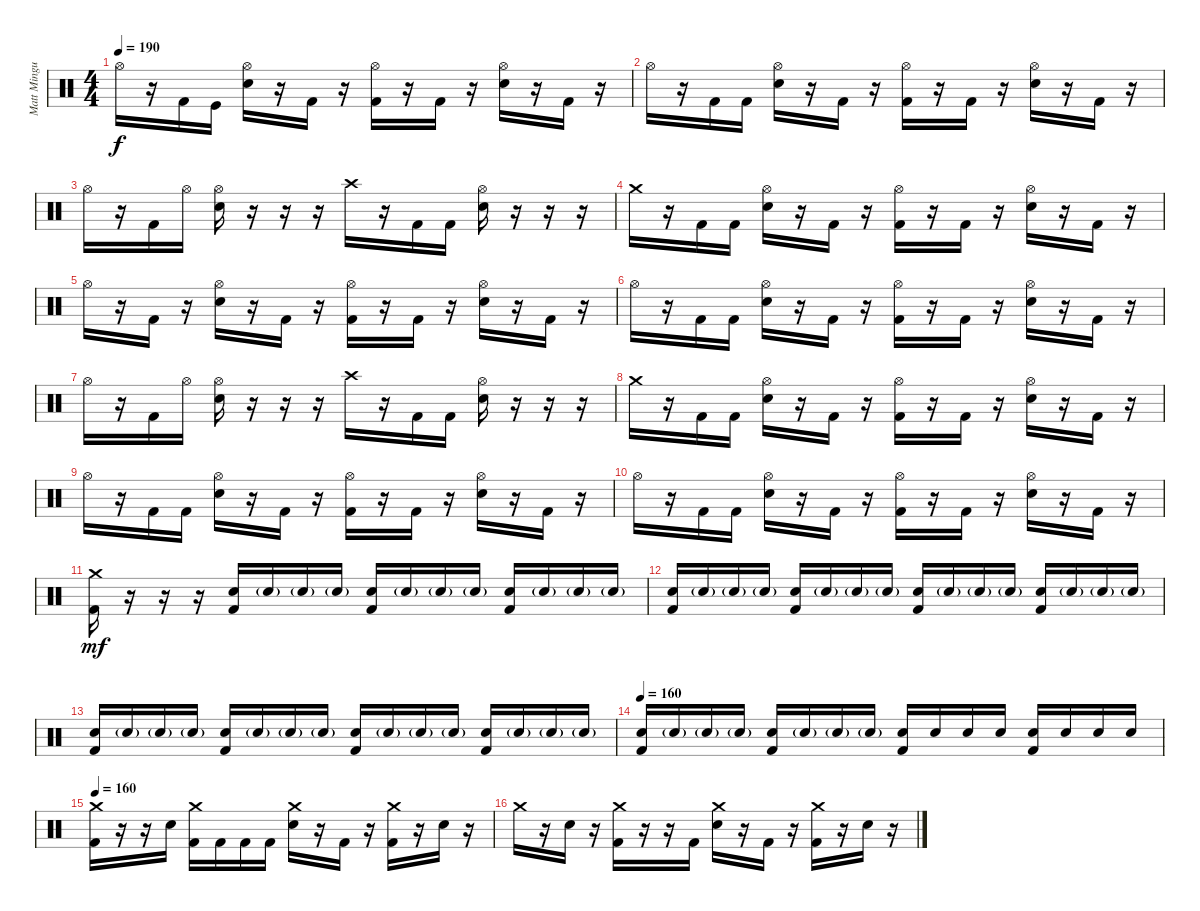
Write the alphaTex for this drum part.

\track ("Matt Mingus" "Matt Mingu") {instrument percussion}
\staff {score}
\articulation defaults
\ts (4 4)
\tempo 190
\clef neutral
\ks c "Hi-Hat (open)".16{dy f}
r.16 "Kick (hit) 2".16 "Kick (hit)".16 ("Hi-Hat (open)" "Electric Snare (hit)").16 r.16 "Kick (hit) 2".16 r.16 ("Hi-Hat (open)" "Kick (hit) 2").16 r.16 "Kick (hit) 2".16 r.16 ("Hi-Hat (open)" "Electric Snare (hit)").16 r.16 "Kick (hit) 2".16 r.16 |
"Hi-Hat (open)".16 r.16 "Kick (hit) 2".16 "Kick (hit) 2".16 ("Hi-Hat (open)" "Electric Snare (hit)").16 r.16 "Kick (hit) 2".16 r.16 ("Hi-Hat (open)" "Kick (hit) 2").16 r.16 "Kick (hit) 2".16 r.16 ("Hi-Hat (open)" "Electric Snare (hit)").16 r.16 "Kick (hit) 2".16 r.16 |
"Hi-Hat (open)".16 r.16 "Kick (hit) 2".16 "Hi-Hat (open)".16 ("Hi-Hat (open)" "Electric Snare (hit)").16 r.16 r.16 r.16 "Crash high (hit)".16 r.16 "Kick (hit) 2".16 "Kick (hit) 2".16 ("Hi-Hat (open)" "Electric Snare (hit)").16 r.16 r.16 r.16 |
"Crash medium (hit)".16 r.16 "Kick (hit) 2".16 "Kick (hit) 2".16 ("Hi-Hat (open)" "Electric Snare (hit)").16 r.16 "Kick (hit) 2".16 r.16 ("Hi-Hat (open)" "Kick (hit) 2").16 r.16 "Kick (hit) 2".16 r.16 ("Hi-Hat (open)" "Electric Snare (hit)").16 r.16 "Kick (hit) 2".16 r.16 |
"Hi-Hat (open)".16 r.16 "Kick (hit) 2".16 r.16 ("Hi-Hat (open)" "Electric Snare (hit)").16 r.16 "Kick (hit) 2".16 r.16 ("Hi-Hat (open)" "Kick (hit) 2").16 r.16 "Kick (hit) 2".16 r.16 ("Hi-Hat (open)" "Electric Snare (hit)").16 r.16 "Kick (hit) 2".16 r.16 |
"Hi-Hat (open)".16 r.16 "Kick (hit) 2".16 "Kick (hit) 2".16 ("Hi-Hat (open)" "Electric Snare (hit)").16 r.16 "Kick (hit) 2".16 r.16 ("Hi-Hat (open)" "Kick (hit) 2").16 r.16 "Kick (hit) 2".16 r.16 ("Hi-Hat (open)" "Electric Snare (hit)").16 r.16 "Kick (hit) 2".16 r.16 |
"Hi-Hat (open)".16 r.16 "Kick (hit) 2".16 "Hi-Hat (open)".16 ("Hi-Hat (open)" "Electric Snare (hit)").16 r.16 r.16 r.16 "Crash high (hit)".16 r.16 "Kick (hit) 2".16 "Kick (hit) 2".16 ("Hi-Hat (open)" "Electric Snare (hit)").16 r.16 r.16 r.16 |
"Crash medium (hit)".16 r.16 "Kick (hit) 2".16 "Kick (hit) 2".16 ("Hi-Hat (open)" "Electric Snare (hit)").16 r.16 "Kick (hit) 2".16 r.16 ("Hi-Hat (open)" "Kick (hit) 2").16 r.16 "Kick (hit) 2".16 r.16 ("Hi-Hat (open)" "Electric Snare (hit)").16 r.16 "Kick (hit) 2".16 r.16 |
"Hi-Hat (open)".16 r.16 "Kick (hit) 2".16 "Kick (hit) 2".16 ("Hi-Hat (open)" "Electric Snare (hit)").16 r.16 "Kick (hit) 2".16 r.16 ("Hi-Hat (open)" "Kick (hit) 2").16 r.16 "Kick (hit) 2".16 r.16 ("Hi-Hat (open)" "Electric Snare (hit)").16 r.16 "Kick (hit) 2".16 r.16 |
"Hi-Hat (open)".16 r.16 "Kick (hit) 2".16 "Kick (hit) 2".16 ("Hi-Hat (open)" "Electric Snare (hit)").16 r.16 "Kick (hit) 2".16 r.16 ("Hi-Hat (open)" "Kick (hit) 2").16 r.16 "Kick (hit) 2".16 r.16 ("Hi-Hat (open)" "Electric Snare (hit)").16 r.16 "Kick (hit) 2".16 r.16 |
("Crash medium (hit)" "Kick (hit) 2").16{dy mf} r.16 r.16 r.16 ("Electric Snare (hit)" "Kick (hit) 2").16 "Electric Snare (hit)"{g}.16 "Electric Snare (hit)"{g}.16 "Electric Snare (hit)"{g}.16 ("Electric Snare (hit)" "Kick (hit) 2").16 "Electric Snare (hit)"{g}.16 "Electric Snare (hit)"{g}.16 "Electric Snare (hit)"{g}.16 ("Electric Snare (hit)" "Kick (hit) 2").16 "Electric Snare (hit)"{g}.16 "Electric Snare (hit)"{g}.16 "Electric Snare (hit)"{g}.16 |
("Electric Snare (hit)" "Kick (hit) 2").16 "Electric Snare (hit)"{g}.16 "Electric Snare (hit)"{g}.16 "Electric Snare (hit)"{g}.16 ("Electric Snare (hit)" "Kick (hit) 2").16 "Electric Snare (hit)"{g}.16 "Electric Snare (hit)"{g}.16 "Electric Snare (hit)"{g}.16 ("Electric Snare (hit)" "Kick (hit) 2").16 "Electric Snare (hit)"{g}.16 "Electric Snare (hit)"{g}.16 "Electric Snare (hit)"{g}.16 ("Electric Snare (hit)" "Kick (hit) 2").16 "Electric Snare (hit)"{g}.16 "Electric Snare (hit)"{g}.16 "Electric Snare (hit)"{g}.16 |
("Electric Snare (hit)" "Kick (hit) 2").16 "Electric Snare (hit)"{g}.16 "Electric Snare (hit)"{g}.16 "Electric Snare (hit)"{g}.16 ("Electric Snare (hit)" "Kick (hit) 2").16 "Electric Snare (hit)"{g}.16 "Electric Snare (hit)"{g}.16 "Electric Snare (hit)"{g}.16 ("Electric Snare (hit)" "Kick (hit) 2").16 "Electric Snare (hit)"{g}.16 "Electric Snare (hit)"{g}.16 "Electric Snare (hit)"{g}.16 ("Electric Snare (hit)" "Kick (hit) 2").16 "Electric Snare (hit)"{g}.16 "Electric Snare (hit)"{g}.16 "Electric Snare (hit)"{g}.16 |
\tempo 160
("Electric Snare (hit)" "Kick (hit) 2").16 "Electric Snare (hit)"{g}.16 "Electric Snare (hit)"{g}.16 "Electric Snare (hit)"{g}.16 ("Electric Snare (hit)" "Kick (hit) 2").16 "Electric Snare (hit)"{g}.16 "Electric Snare (hit)"{g}.16 "Electric Snare (hit)"{g}.16 ("Electric Snare (hit)" "Kick (hit) 2").16 "Electric Snare (hit)".16 "Electric Snare (hit)".16 "Electric Snare (hit)".16 ("Electric Snare (hit)" "Kick (hit) 2").16 "Electric Snare (hit)".16 "Electric Snare (hit)".16 "Electric Snare (hit)".16 |
\tempo 160
("Crash medium (hit)" "Kick (hit) 2").16 r.16 r.16 "Electric Snare (hit)".16 ("Crash medium (hit)" "Kick (hit) 2").16 "Kick (hit) 2".16 "Kick (hit) 2".16 "Kick (hit) 2".16 ("Crash medium (hit)" "Electric Snare (hit)").16 r.16 "Kick (hit) 2".16 r.16 ("Crash medium (hit)" "Kick (hit) 2").16 r.16 "Electric Snare (hit)".16 r.16 |
"Crash medium (hit)".16 r.16 "Electric Snare (hit)".16 r.16 ("Crash medium (hit)" "Kick (hit) 2").16 r.16 r.16 "Kick (hit) 2".16 ("Crash medium (hit)" "Electric Snare (hit)").16 r.16 "Kick (hit) 2".16 r.16 ("Crash medium (hit)" "Kick (hit) 2").16 r.16 "Electric Snare (hit)".16 r.16
